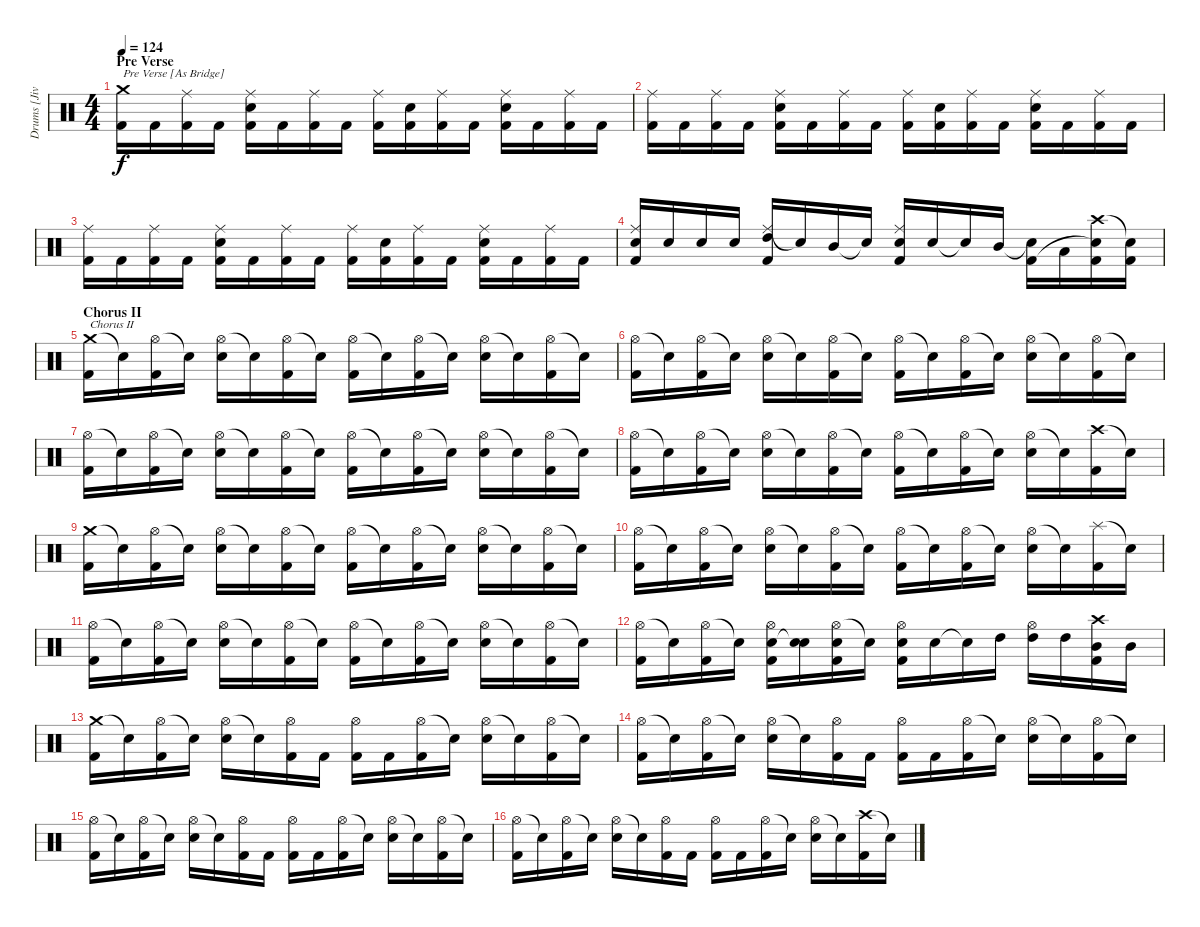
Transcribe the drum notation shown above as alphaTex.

\track ("Drums [Jivarp]" "Drums [Jiv") {instrument percussion}
\staff {score}
\articulation defaults
\ts (4 4)
\section ("" "Pre Verse")
\tempo 124
\clef neutral
\ks c
("Crash medium (hit)" "Kick (hit) 2").16{txt "Pre Verse [As Bridge]" dy f} "Kick (hit) 2".16 ("Ride (middle)" "Kick (hit) 2").16 "Kick (hit) 2".16 ("Ride (middle)" "Electric Snare (hit)" "Kick (hit) 2").16 "Kick (hit) 2".16 ("Ride (middle)" "Kick (hit) 2").16 "Kick (hit) 2".16 ("Ride (middle)" "Kick (hit) 2").16 ("Electric Snare (hit)" "Kick (hit) 2").16 ("Ride (middle)" "Kick (hit) 2").16 "Kick (hit) 2".16 ("Ride (middle)" "Electric Snare (hit)" "Kick (hit) 2").16 "Kick (hit) 2".16 ("Ride (middle)" "Kick (hit) 2").16 "Kick (hit) 2".16 |
("Ride (middle)" "Kick (hit) 2").16 "Kick (hit) 2".16 ("Ride (middle)" "Kick (hit) 2").16 "Kick (hit) 2".16 ("Ride (middle)" "Electric Snare (hit)" "Kick (hit) 2").16 "Kick (hit) 2".16 ("Ride (middle)" "Kick (hit) 2").16 "Kick (hit) 2".16 ("Ride (middle)" "Kick (hit) 2").16 ("Electric Snare (hit)" "Kick (hit) 2").16 ("Ride (middle)" "Kick (hit) 2").16 "Kick (hit) 2".16 ("Ride (middle)" "Electric Snare (hit)" "Kick (hit) 2").16 "Kick (hit) 2".16 ("Ride (middle)" "Kick (hit) 2").16 "Kick (hit) 2".16 |
("Ride (middle)" "Kick (hit) 2").16 "Kick (hit) 2".16 ("Ride (middle)" "Kick (hit) 2").16 "Kick (hit) 2".16 ("Ride (middle)" "Electric Snare (hit)" "Kick (hit) 2").16 "Kick (hit) 2".16 ("Ride (middle)" "Kick (hit) 2").16 "Kick (hit) 2".16 ("Ride (middle)" "Kick (hit) 2").16 ("Electric Snare (hit)" "Kick (hit) 2").16 ("Ride (middle)" "Kick (hit) 2").16 "Kick (hit) 2".16 ("Ride (middle)" "Electric Snare (hit)" "Kick (hit) 2").16 "Kick (hit) 2".16 ("Ride (middle)" "Kick (hit) 2").16 "Kick (hit) 2".16 |
("Ride (middle)" "Electric Snare (hit)" "Kick (hit) 2").16 "Electric Snare (hit)".16 "Electric Snare (hit)".16 "Electric Snare (hit)".16 ("Ride (middle)" "High Tom (hit)" "Kick (hit) 2").16 "Snare (hit)"{t}.16 "Mid Tom (hit)".16 "Snare (hit)"{t}.16 ("Ride (middle)" "Electric Snare (hit)" "Kick (hit) 2").16 "Electric Snare (hit)".16 "Snare (hit)"{t}.16 "Mid Tom (hit)".16 ("Snare (hit)"{t} "Kick (hit) 2").16 "Low Tom (hit)".16 ("Crash high (hit)" "Snare (hit)"{t} "Kick (hit) 2").16 ("Snare (hit)"{t} "Kick (hit) 2").16 |
\section ("" "Chorus II")
("Crash medium (hit)" "Kick (hit) 2").16{txt "Chorus II"} "Snare (hit)"{t}.16 ("Hi-Hat (open)" "Kick (hit) 2").16 "Snare (hit)"{t}.16 ("Hi-Hat (open)" "Electric Snare (hit)").16 "Snare (hit)"{t}.16 ("Hi-Hat (open)" "Kick (hit) 2").16 "Snare (hit)"{t}.16 ("Hi-Hat (open)" "Kick (hit) 2").16 "Snare (hit)"{t}.16 ("Hi-Hat (open)" "Kick (hit) 2").16 "Snare (hit)"{t}.16 ("Hi-Hat (open)" "Electric Snare (hit)").16 "Snare (hit)"{t}.16 ("Hi-Hat (open)" "Kick (hit) 2").16 "Snare (hit)"{t}.16 |
("Hi-Hat (open)" "Kick (hit) 2").16 "Snare (hit)"{t}.16 ("Hi-Hat (open)" "Kick (hit) 2").16 "Snare (hit)"{t}.16 ("Hi-Hat (open)" "Electric Snare (hit)").16 "Snare (hit)"{t}.16 ("Hi-Hat (open)" "Kick (hit) 2").16 "Snare (hit)"{t}.16 ("Hi-Hat (open)" "Kick (hit) 2").16 "Snare (hit)"{t}.16 ("Hi-Hat (open)" "Kick (hit) 2").16 "Snare (hit)"{t}.16 ("Hi-Hat (open)" "Electric Snare (hit)").16 "Snare (hit)"{t}.16 ("Hi-Hat (open)" "Kick (hit) 2").16 "Snare (hit)"{t}.16 |
("Hi-Hat (open)" "Kick (hit) 2").16 "Snare (hit)"{t}.16 ("Hi-Hat (open)" "Kick (hit) 2").16 "Snare (hit)"{t}.16 ("Hi-Hat (open)" "Electric Snare (hit)").16 "Snare (hit)"{t}.16 ("Hi-Hat (open)" "Kick (hit) 2").16 "Snare (hit)"{t}.16 ("Hi-Hat (open)" "Kick (hit) 2").16 "Snare (hit)"{t}.16 ("Hi-Hat (open)" "Kick (hit) 2").16 "Snare (hit)"{t}.16 ("Hi-Hat (open)" "Electric Snare (hit)").16 "Snare (hit)"{t}.16 ("Hi-Hat (open)" "Kick (hit) 2").16 "Snare (hit)"{t}.16 |
("Hi-Hat (open)" "Kick (hit) 2").16 "Snare (hit)"{t}.16 ("Hi-Hat (open)" "Kick (hit) 2").16 "Snare (hit)"{t}.16 ("Hi-Hat (open)" "Electric Snare (hit)").16 "Snare (hit)"{t}.16 ("Hi-Hat (open)" "Kick (hit) 2").16 "Snare (hit)"{t}.16 ("Hi-Hat (open)" "Kick (hit) 2").16 "Snare (hit)"{t}.16 ("Hi-Hat (open)" "Kick (hit) 2").16 "Snare (hit)"{t}.16 ("Hi-Hat (open)" "Electric Snare (hit)").16 "Snare (hit)"{t}.16 ("Crash high (hit)" "Kick (hit) 2").16 "Snare (hit)"{t}.16 |
("Crash medium (hit)" "Kick (hit) 2").16 "Snare (hit)"{t}.16 ("Hi-Hat (open)" "Kick (hit) 2").16 "Snare (hit)"{t}.16 ("Hi-Hat (open)" "Electric Snare (hit)").16 "Snare (hit)"{t}.16 ("Hi-Hat (open)" "Kick (hit) 2").16 "Snare (hit)"{t}.16 ("Hi-Hat (open)" "Kick (hit) 2").16 "Snare (hit)"{t}.16 ("Hi-Hat (open)" "Kick (hit) 2").16 "Snare (hit)"{t}.16 ("Hi-Hat (open)" "Electric Snare (hit)").16 "Snare (hit)"{t}.16 ("Hi-Hat (open)" "Kick (hit) 2").16 "Snare (hit)"{t}.16 |
("Hi-Hat (open)" "Kick (hit) 2").16 "Snare (hit)"{t}.16 ("Hi-Hat (open)" "Kick (hit) 2").16 "Snare (hit)"{t}.16 ("Hi-Hat (open)" "Electric Snare (hit)").16 "Snare (hit)"{t}.16 ("Hi-Hat (open)" "Kick (hit) 2").16 "Snare (hit)"{t}.16 ("Hi-Hat (open)" "Kick (hit) 2").16 "Snare (hit)"{t}.16 ("Hi-Hat (open)" "Kick (hit) 2").16 "Snare (hit)"{t}.16 ("Hi-Hat (open)" "Electric Snare (hit)").16 "Snare (hit)"{t}.16 ("Splash (hit)" "Kick (hit) 2").16 "Snare (hit)"{t}.16 |
("Hi-Hat (open)" "Kick (hit) 2").16 "Snare (hit)"{t}.16 ("Hi-Hat (open)" "Kick (hit) 2").16 "Snare (hit)"{t}.16 ("Hi-Hat (open)" "Electric Snare (hit)").16 "Snare (hit)"{t}.16 ("Hi-Hat (open)" "Kick (hit) 2").16 "Snare (hit)"{t}.16 ("Hi-Hat (open)" "Kick (hit) 2").16 "Snare (hit)"{t}.16 ("Hi-Hat (open)" "Kick (hit) 2").16 "Snare (hit)"{t}.16 ("Hi-Hat (open)" "Electric Snare (hit)").16 "Snare (hit)"{t}.16 ("Hi-Hat (open)" "Kick (hit) 2").16 "Snare (hit)"{t}.16 |
("Hi-Hat (open)" "Kick (hit) 2").16 "Snare (hit)"{t}.16 ("Hi-Hat (open)" "Kick (hit) 2").16 "Snare (hit)"{t}.16 ("Hi-Hat (open)" "Electric Snare (hit)" "Kick (hit) 2").16 ("Electric Snare (hit)" "Snare (hit)"{t}).16 ("Hi-Hat (open)" "Electric Snare (hit)" "Kick (hit) 2").16 "Snare (hit)"{t}.16 ("Hi-Hat (open)" "Electric Snare (hit)" "Kick (hit) 2").16 "Electric Snare (hit)".16 "Snare (hit)"{t}.16 "High Tom (hit)".16 ("Hi-Hat (open)" "High Tom (hit)").16 "High Tom (hit)".16 ("Crash high (hit)" "Mid Tom (hit)" "Kick (hit) 2").16 "Mid Tom (hit)".16 |
("Crash medium (hit)" "Kick (hit) 2").16 "Snare (hit)"{t}.16 ("Hi-Hat (open)" "Kick (hit) 2").16 "Snare (hit)"{t}.16 ("Hi-Hat (open)" "Electric Snare (hit)").16 "Snare (hit)"{t}.16 ("Hi-Hat (open)" "Kick (hit) 2").16 "Kick (hit) 2".16 ("Hi-Hat (open)" "Kick (hit) 2").16 "Kick (hit) 2".16 ("Hi-Hat (open)" "Kick (hit) 2").16 "Snare (hit)"{t}.16 ("Hi-Hat (open)" "Electric Snare (hit)").16 "Snare (hit)"{t}.16 ("Hi-Hat (open)" "Kick (hit) 2").16 "Snare (hit)"{t}.16 |
("Hi-Hat (open)" "Kick (hit) 2").16 "Snare (hit)"{t}.16 ("Hi-Hat (open)" "Kick (hit) 2").16 "Snare (hit)"{t}.16 ("Hi-Hat (open)" "Electric Snare (hit)").16 "Snare (hit)"{t}.16 ("Hi-Hat (open)" "Kick (hit) 2").16 "Kick (hit) 2".16 ("Hi-Hat (open)" "Kick (hit) 2").16 "Kick (hit) 2".16 ("Hi-Hat (open)" "Kick (hit) 2").16 "Snare (hit)"{t}.16 ("Hi-Hat (open)" "Electric Snare (hit)").16 "Snare (hit)"{t}.16 ("Hi-Hat (open)" "Kick (hit) 2").16 "Snare (hit)"{t}.16 |
("Hi-Hat (open)" "Kick (hit) 2").16 "Snare (hit)"{t}.16 ("Hi-Hat (open)" "Kick (hit) 2").16 "Snare (hit)"{t}.16 ("Hi-Hat (open)" "Electric Snare (hit)").16 "Snare (hit)"{t}.16 ("Hi-Hat (open)" "Kick (hit) 2").16 "Kick (hit) 2".16 ("Hi-Hat (open)" "Kick (hit) 2").16 "Kick (hit) 2".16 ("Hi-Hat (open)" "Kick (hit) 2").16 "Snare (hit)"{t}.16 ("Hi-Hat (open)" "Electric Snare (hit)").16 "Snare (hit)"{t}.16 ("Hi-Hat (open)" "Kick (hit) 2").16 "Snare (hit)"{t}.16 |
("Hi-Hat (open)" "Kick (hit) 2").16 "Snare (hit)"{t}.16 ("Hi-Hat (open)" "Kick (hit) 2").16 "Snare (hit)"{t}.16 ("Hi-Hat (open)" "Electric Snare (hit)").16 "Snare (hit)"{t}.16 ("Hi-Hat (open)" "Kick (hit) 2").16 "Kick (hit) 2".16 ("Hi-Hat (open)" "Kick (hit) 2").16 "Kick (hit) 2".16 ("Hi-Hat (open)" "Kick (hit) 2").16 "Snare (hit)"{t}.16 ("Hi-Hat (open)" "Electric Snare (hit)").16 "Snare (hit)"{t}.16 ("Crash high (hit)" "Kick (hit) 2").16 "Snare (hit)"{t}.16
